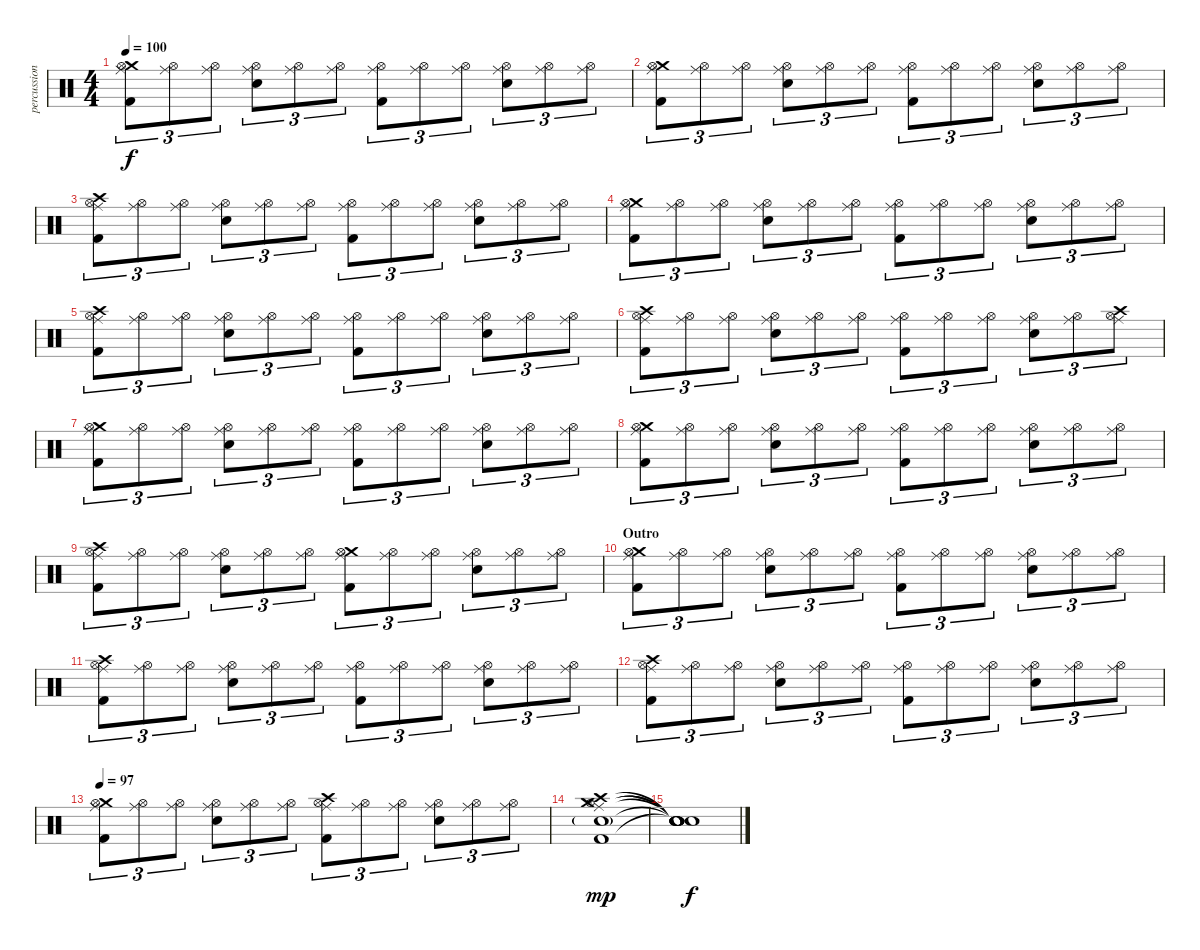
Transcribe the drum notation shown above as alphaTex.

\track ("percussion - vom" "percussion") {instrument percussion}
\staff {score}
\articulation defaults
\ts (4 4)
\tempo 100
\clef neutral
\ks c
("Ride (middle)" "Crash medium (hit)" "Hi-Hat (open)" "Kick (hit) 2").8{tu (3 2) dy f} ("Ride (middle)" "Hi-Hat (open)").8{tu (3 2)} ("Ride (middle)" "Hi-Hat (open)").8{tu (3 2)} ("Ride (middle)" "Hi-Hat (open)" "Snare (hit) 2").8{tu (3 2)} ("Ride (middle)" "Hi-Hat (open)").8{tu (3 2)} ("Ride (middle)" "Hi-Hat (open)").8{tu (3 2)} ("Ride (middle)" "Hi-Hat (open)" "Kick (hit) 2").8{tu (3 2)} ("Ride (middle)" "Hi-Hat (open)").8{tu (3 2)} ("Ride (middle)" "Hi-Hat (open)").8{tu (3 2)} ("Ride (middle)" "Hi-Hat (open)" "Snare (hit) 2").8{tu (3 2)} ("Ride (middle)" "Hi-Hat (open)").8{tu (3 2)} ("Ride (middle)" "Hi-Hat (open)").8{tu (3 2)} |
("Ride (middle)" "Crash medium (hit)" "Hi-Hat (open)" "Kick (hit) 2").8{tu (3 2)} ("Ride (middle)" "Hi-Hat (open)").8{tu (3 2)} ("Ride (middle)" "Hi-Hat (open)").8{tu (3 2)} ("Ride (middle)" "Hi-Hat (open)" "Snare (hit) 2").8{tu (3 2)} ("Ride (middle)" "Hi-Hat (open)").8{tu (3 2)} ("Ride (middle)" "Hi-Hat (open)").8{tu (3 2)} ("Ride (middle)" "Hi-Hat (open)" "Kick (hit) 2").8{tu (3 2)} ("Ride (middle)" "Hi-Hat (open)").8{tu (3 2)} ("Ride (middle)" "Hi-Hat (open)").8{tu (3 2)} ("Ride (middle)" "Hi-Hat (open)" "Snare (hit) 2").8{tu (3 2)} ("Ride (middle)" "Hi-Hat (open)").8{tu (3 2)} ("Ride (middle)" "Hi-Hat (open)").8{tu (3 2)} |
("Ride (middle)" "Crash high (hit)" "Hi-Hat (open)" "Kick (hit) 2").8{tu (3 2)} ("Ride (middle)" "Hi-Hat (open)").8{tu (3 2)} ("Ride (middle)" "Hi-Hat (open)").8{tu (3 2)} ("Ride (middle)" "Hi-Hat (open)" "Snare (hit) 2").8{tu (3 2)} ("Ride (middle)" "Hi-Hat (open)").8{tu (3 2)} ("Ride (middle)" "Hi-Hat (open)").8{tu (3 2)} ("Ride (middle)" "Hi-Hat (open)" "Kick (hit) 2").8{tu (3 2)} ("Ride (middle)" "Hi-Hat (open)").8{tu (3 2)} ("Ride (middle)" "Hi-Hat (open)").8{tu (3 2)} ("Ride (middle)" "Hi-Hat (open)" "Snare (hit) 2").8{tu (3 2)} ("Ride (middle)" "Hi-Hat (open)").8{tu (3 2)} ("Ride (middle)" "Hi-Hat (open)").8{tu (3 2)} |
("Ride (middle)" "Crash medium (hit)" "Hi-Hat (open)" "Kick (hit) 2").8{tu (3 2)} ("Ride (middle)" "Hi-Hat (open)").8{tu (3 2)} ("Ride (middle)" "Hi-Hat (open)").8{tu (3 2)} ("Ride (middle)" "Hi-Hat (open)" "Snare (hit) 2").8{tu (3 2)} ("Ride (middle)" "Hi-Hat (open)").8{tu (3 2)} ("Ride (middle)" "Hi-Hat (open)").8{tu (3 2)} ("Ride (middle)" "Hi-Hat (open)" "Kick (hit) 2").8{tu (3 2)} ("Ride (middle)" "Hi-Hat (open)").8{tu (3 2)} ("Ride (middle)" "Hi-Hat (open)").8{tu (3 2)} ("Ride (middle)" "Hi-Hat (open)" "Snare (hit) 2").8{tu (3 2)} ("Ride (middle)" "Hi-Hat (open)").8{tu (3 2)} ("Ride (middle)" "Hi-Hat (open)").8{tu (3 2)} |
("Ride (middle)" "Crash high (hit)" "Hi-Hat (open)" "Kick (hit) 2").8{tu (3 2)} ("Ride (middle)" "Hi-Hat (open)").8{tu (3 2)} ("Ride (middle)" "Hi-Hat (open)").8{tu (3 2)} ("Ride (middle)" "Hi-Hat (open)" "Snare (hit) 2").8{tu (3 2)} ("Ride (middle)" "Hi-Hat (open)").8{tu (3 2)} ("Ride (middle)" "Hi-Hat (open)").8{tu (3 2)} ("Ride (middle)" "Hi-Hat (open)" "Kick (hit) 2").8{tu (3 2)} ("Ride (middle)" "Hi-Hat (open)").8{tu (3 2)} ("Ride (middle)" "Hi-Hat (open)").8{tu (3 2)} ("Ride (middle)" "Hi-Hat (open)" "Snare (hit) 2").8{tu (3 2)} ("Ride (middle)" "Hi-Hat (open)").8{tu (3 2)} ("Ride (middle)" "Hi-Hat (open)").8{tu (3 2)} |
("Ride (middle)" "Crash high (hit)" "Hi-Hat (open)" "Kick (hit) 2").8{tu (3 2)} ("Ride (middle)" "Hi-Hat (open)").8{tu (3 2)} ("Ride (middle)" "Hi-Hat (open)").8{tu (3 2)} ("Ride (middle)" "Hi-Hat (open)" "Snare (hit) 2").8{tu (3 2)} ("Ride (middle)" "Hi-Hat (open)").8{tu (3 2)} ("Ride (middle)" "Hi-Hat (open)").8{tu (3 2)} ("Ride (middle)" "Hi-Hat (open)" "Kick (hit) 2").8{tu (3 2)} ("Ride (middle)" "Hi-Hat (open)").8{tu (3 2)} ("Ride (middle)" "Hi-Hat (open)").8{tu (3 2)} ("Ride (middle)" "Hi-Hat (open)" "Snare (hit) 2").8{tu (3 2)} ("Ride (middle)" "Hi-Hat (open)").8{tu (3 2)} ("Ride (middle)" "Crash high (hit)" "Hi-Hat (open)").8{tu (3 2)} |
("Ride (middle)" "Crash medium (hit)" "Hi-Hat (open)" "Kick (hit) 2").8{tu (3 2)} ("Ride (middle)" "Hi-Hat (open)").8{tu (3 2)} ("Ride (middle)" "Hi-Hat (open)").8{tu (3 2)} ("Ride (middle)" "Hi-Hat (open)" "Snare (hit) 2").8{tu (3 2)} ("Ride (middle)" "Hi-Hat (open)").8{tu (3 2)} ("Ride (middle)" "Hi-Hat (open)").8{tu (3 2)} ("Ride (middle)" "Hi-Hat (open)" "Kick (hit) 2").8{tu (3 2)} ("Ride (middle)" "Hi-Hat (open)").8{tu (3 2)} ("Ride (middle)" "Hi-Hat (open)").8{tu (3 2)} ("Ride (middle)" "Hi-Hat (open)" "Snare (hit) 2").8{tu (3 2)} ("Ride (middle)" "Hi-Hat (open)").8{tu (3 2)} ("Ride (middle)" "Hi-Hat (open)").8{tu (3 2)} |
("Ride (middle)" "Crash medium (hit)" "Hi-Hat (open)" "Kick (hit) 2").8{tu (3 2)} ("Ride (middle)" "Hi-Hat (open)").8{tu (3 2)} ("Ride (middle)" "Hi-Hat (open)").8{tu (3 2)} ("Ride (middle)" "Hi-Hat (open)" "Snare (hit) 2").8{tu (3 2)} ("Ride (middle)" "Hi-Hat (open)").8{tu (3 2)} ("Ride (middle)" "Hi-Hat (open)").8{tu (3 2)} ("Ride (middle)" "Hi-Hat (open)" "Kick (hit) 2").8{tu (3 2)} ("Ride (middle)" "Hi-Hat (open)").8{tu (3 2)} ("Ride (middle)" "Hi-Hat (open)").8{tu (3 2)} ("Ride (middle)" "Hi-Hat (open)" "Snare (hit) 2").8{tu (3 2)} ("Ride (middle)" "Hi-Hat (open)").8{tu (3 2)} ("Ride (middle)" "Hi-Hat (open)").8{tu (3 2)} |
("Ride (middle)" "Crash high (hit)" "Hi-Hat (open)" "Kick (hit) 2").8{tu (3 2)} ("Ride (middle)" "Hi-Hat (open)").8{tu (3 2)} ("Ride (middle)" "Hi-Hat (open)").8{tu (3 2)} ("Ride (middle)" "Hi-Hat (open)" "Snare (hit) 2").8{tu (3 2)} ("Ride (middle)" "Hi-Hat (open)").8{tu (3 2)} ("Ride (middle)" "Hi-Hat (open)").8{tu (3 2)} ("Ride (middle)" "Crash medium (hit)" "Hi-Hat (open)" "Kick (hit) 2").8{tu (3 2)} ("Ride (middle)" "Hi-Hat (open)").8{tu (3 2)} ("Ride (middle)" "Hi-Hat (open)").8{tu (3 2)} ("Ride (middle)" "Hi-Hat (open)" "Snare (hit) 2").8{tu (3 2)} ("Ride (middle)" "Hi-Hat (open)").8{tu (3 2)} ("Ride (middle)" "Hi-Hat (open)").8{tu (3 2)} |
\section ("" "Outro")
("Ride (middle)" "Crash medium (hit)" "Hi-Hat (open)" "Kick (hit) 2").8{tu (3 2)} ("Ride (middle)" "Hi-Hat (open)").8{tu (3 2)} ("Ride (middle)" "Hi-Hat (open)").8{tu (3 2)} ("Ride (middle)" "Hi-Hat (open)" "Snare (hit) 2").8{tu (3 2)} ("Ride (middle)" "Hi-Hat (open)").8{tu (3 2)} ("Ride (middle)" "Hi-Hat (open)").8{tu (3 2)} ("Ride (middle)" "Hi-Hat (open)" "Kick (hit) 2").8{tu (3 2)} ("Ride (middle)" "Hi-Hat (open)").8{tu (3 2)} ("Ride (middle)" "Hi-Hat (open)").8{tu (3 2)} ("Ride (middle)" "Hi-Hat (open)" "Snare (hit) 2").8{tu (3 2)} ("Ride (middle)" "Hi-Hat (open)").8{tu (3 2)} ("Ride (middle)" "Hi-Hat (open)").8{tu (3 2)} |
("Ride (middle)" "Crash high (hit)" "Hi-Hat (open)" "Kick (hit) 2").8{tu (3 2)} ("Ride (middle)" "Hi-Hat (open)").8{tu (3 2)} ("Ride (middle)" "Hi-Hat (open)").8{tu (3 2)} ("Ride (middle)" "Hi-Hat (open)" "Snare (hit) 2").8{tu (3 2)} ("Ride (middle)" "Hi-Hat (open)").8{tu (3 2)} ("Ride (middle)" "Hi-Hat (open)").8{tu (3 2)} ("Ride (middle)" "Hi-Hat (open)" "Kick (hit) 2").8{tu (3 2)} ("Ride (middle)" "Hi-Hat (open)").8{tu (3 2)} ("Ride (middle)" "Hi-Hat (open)").8{tu (3 2)} ("Ride (middle)" "Hi-Hat (open)" "Snare (hit) 2").8{tu (3 2)} ("Ride (middle)" "Hi-Hat (open)").8{tu (3 2)} ("Ride (middle)" "Hi-Hat (open)").8{tu (3 2)} |
("Ride (middle)" "Crash high (hit)" "Hi-Hat (open)" "Kick (hit) 2").8{tu (3 2)} ("Ride (middle)" "Hi-Hat (open)").8{tu (3 2)} ("Ride (middle)" "Hi-Hat (open)").8{tu (3 2)} ("Ride (middle)" "Hi-Hat (open)" "Snare (hit) 2").8{tu (3 2)} ("Ride (middle)" "Hi-Hat (open)").8{tu (3 2)} ("Ride (middle)" "Hi-Hat (open)").8{tu (3 2)} ("Ride (middle)" "Hi-Hat (open)" "Kick (hit) 2").8{tu (3 2)} ("Ride (middle)" "Hi-Hat (open)").8{tu (3 2)} ("Ride (middle)" "Hi-Hat (open)").8{tu (3 2)} ("Ride (middle)" "Hi-Hat (open)" "Snare (hit) 2").8{tu (3 2)} ("Ride (middle)" "Hi-Hat (open)").8{tu (3 2)} ("Ride (middle)" "Hi-Hat (open)").8{tu (3 2)} |
\tempo 97
("Ride (middle)" "Crash medium (hit)" "Hi-Hat (open)" "Kick (hit) 2").8{tu (3 2)} ("Ride (middle)" "Hi-Hat (open)").8{tu (3 2)} ("Ride (middle)" "Hi-Hat (open)").8{tu (3 2)} ("Ride (middle)" "Hi-Hat (open)" "Snare (hit) 2").8{tu (3 2)} ("Ride (middle)" "Hi-Hat (open)").8{tu (3 2)} ("Ride (middle)" "Hi-Hat (open)").8{tu (3 2)} ("Ride (middle)" "Crash high (hit)" "Hi-Hat (open)" "Kick (hit) 2").8{tu (3 2)} ("Ride (middle)" "Hi-Hat (open)").8{tu (3 2)} ("Ride (middle)" "Hi-Hat (open)").8{tu (3 2)} ("Ride (middle)" "Hi-Hat (open)" "Snare (hit) 2").8{tu (3 2)} ("Ride (middle)" "Hi-Hat (open)").8{tu (3 2)} ("Ride (middle)" "Hi-Hat (open)").8{tu (3 2)} |
("Ride (middle)" "Crash high (hit)" "Hi-Hat (open)" "Crash medium (hit)" "Snare (hit) 2"{g} "Kick (hit) 2").1{dy mp volume 0} |
("Snare (hit)"{t} "Snare (hit)"{t} "Snare (hit)"{t} "Snare (hit)"{t} "Snare (hit)"{t} "Snare (hit)"{t}).1{dy f}
